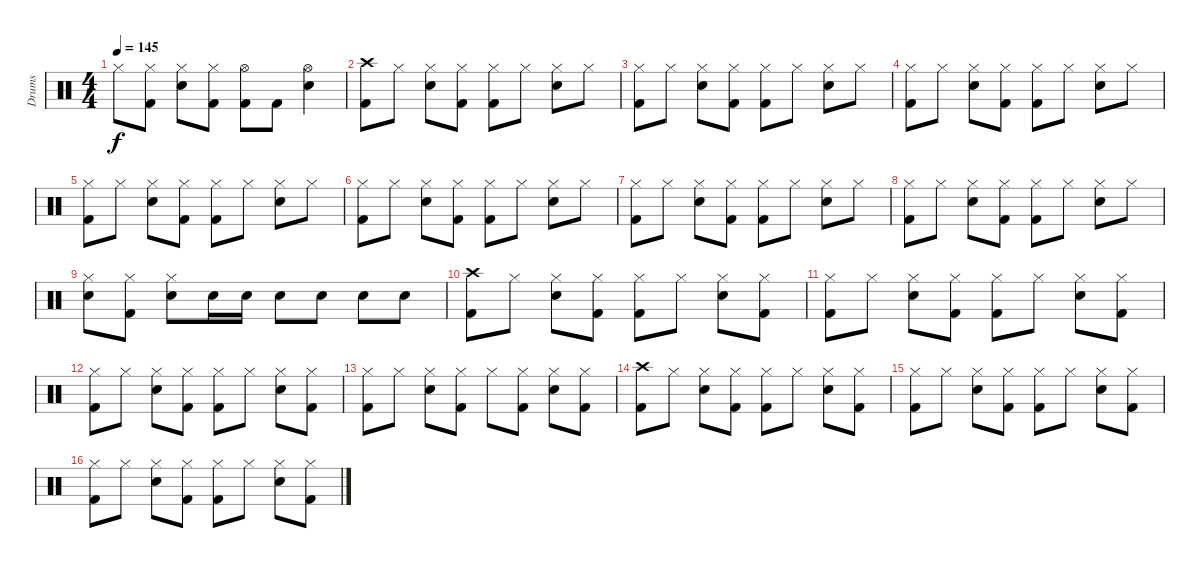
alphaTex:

\track ("Drums" "Drums") {instrument percussion}
\staff {score}
\articulation defaults
\ts (4 4)
\tempo 145
\clef neutral
\ks c "Hi-Hat (closed)".8{dy f}
("Hi-Hat (closed)" "Kick (hit) 2").8 ("Hi-Hat (closed)" "Electric Snare (hit)").8 ("Hi-Hat (closed)" "Kick (hit) 2").8 ("Hi-Hat (open)" "Kick (hit) 2").8 "Kick (hit) 2".8 ("Hi-Hat (open)" "Electric Snare (hit)").4 |
("Crash high (hit)" "Kick (hit) 2").8 "Hi-Hat (closed)".8 ("Hi-Hat (closed)" "Electric Snare (hit)").8 ("Hi-Hat (closed)" "Kick (hit) 2").8 ("Hi-Hat (closed)" "Kick (hit) 2").8 "Hi-Hat (closed)".8 ("Hi-Hat (closed)" "Electric Snare (hit)").8 "Hi-Hat (closed)".8 |
("Hi-Hat (closed)" "Kick (hit) 2").8 "Hi-Hat (closed)".8 ("Hi-Hat (closed)" "Electric Snare (hit)").8 ("Hi-Hat (closed)" "Kick (hit) 2").8 ("Hi-Hat (closed)" "Kick (hit) 2").8 "Hi-Hat (closed)".8 ("Hi-Hat (closed)" "Electric Snare (hit)").8 "Hi-Hat (closed)".8 |
("Hi-Hat (closed)" "Kick (hit) 2").8 "Hi-Hat (closed)".8 ("Hi-Hat (closed)" "Electric Snare (hit)").8 ("Hi-Hat (closed)" "Kick (hit) 2").8 ("Hi-Hat (closed)" "Kick (hit) 2").8 "Hi-Hat (closed)".8 ("Hi-Hat (closed)" "Electric Snare (hit)").8 "Hi-Hat (closed)".8 |
("Hi-Hat (closed)" "Kick (hit) 2").8 "Hi-Hat (closed)".8 ("Hi-Hat (closed)" "Electric Snare (hit)").8 ("Hi-Hat (closed)" "Kick (hit) 2").8 ("Hi-Hat (closed)" "Kick (hit) 2").8 "Hi-Hat (closed)".8 ("Hi-Hat (closed)" "Electric Snare (hit)").8 "Hi-Hat (closed)".8 |
("Hi-Hat (closed)" "Kick (hit) 2").8 "Hi-Hat (closed)".8 ("Hi-Hat (closed)" "Electric Snare (hit)").8 ("Hi-Hat (closed)" "Kick (hit) 2").8 ("Hi-Hat (closed)" "Kick (hit) 2").8 "Hi-Hat (closed)".8 ("Hi-Hat (closed)" "Electric Snare (hit)").8 "Hi-Hat (closed)".8 |
("Hi-Hat (closed)" "Kick (hit) 2").8 "Hi-Hat (closed)".8 ("Hi-Hat (closed)" "Electric Snare (hit)").8 ("Hi-Hat (closed)" "Kick (hit) 2").8 ("Hi-Hat (closed)" "Kick (hit) 2").8 "Hi-Hat (closed)".8 ("Hi-Hat (closed)" "Electric Snare (hit)").8 "Hi-Hat (closed)".8 |
("Hi-Hat (closed)" "Kick (hit) 2").8 "Hi-Hat (closed)".8 ("Hi-Hat (closed)" "Electric Snare (hit)").8 ("Hi-Hat (closed)" "Kick (hit) 2").8 ("Hi-Hat (closed)" "Kick (hit) 2").8 "Hi-Hat (closed)".8 ("Hi-Hat (closed)" "Electric Snare (hit)").8 "Hi-Hat (closed)".8 |
("Hi-Hat (closed)" "Electric Snare (hit)").8 ("Hi-Hat (closed)" "Kick (hit) 2").8 ("Hi-Hat (closed)" "Electric Snare (hit)").8 "Electric Snare (hit)".16 "Electric Snare (hit)".16 "Electric Snare (hit)".8 "Electric Snare (hit)".8 "Electric Snare (hit)".8 "Electric Snare (hit)".8 |
("Crash high (hit)" "Kick (hit) 2").8 "Hi-Hat (closed)".8 ("Hi-Hat (closed)" "Electric Snare (hit)").8 ("Hi-Hat (closed)" "Kick (hit) 2").8 ("Hi-Hat (closed)" "Kick (hit) 2").8 "Hi-Hat (closed)".8 ("Hi-Hat (closed)" "Electric Snare (hit)").8 ("Hi-Hat (closed)" "Kick (hit) 2").8 |
("Hi-Hat (closed)" "Kick (hit) 2").8 "Hi-Hat (closed)".8 ("Hi-Hat (closed)" "Electric Snare (hit)").8 ("Hi-Hat (closed)" "Kick (hit) 2").8 ("Hi-Hat (closed)" "Kick (hit) 2").8 "Hi-Hat (closed)".8 ("Hi-Hat (closed)" "Electric Snare (hit)").8 ("Hi-Hat (closed)" "Kick (hit) 2").8 |
("Hi-Hat (closed)" "Kick (hit) 2").8 "Hi-Hat (closed)".8 ("Hi-Hat (closed)" "Electric Snare (hit)").8 ("Hi-Hat (closed)" "Kick (hit) 2").8 ("Hi-Hat (closed)" "Kick (hit) 2").8 "Hi-Hat (closed)".8 ("Hi-Hat (closed)" "Electric Snare (hit)").8 ("Hi-Hat (closed)" "Kick (hit) 2").8 |
("Hi-Hat (closed)" "Kick (hit) 2").8 "Hi-Hat (closed)".8 ("Hi-Hat (closed)" "Electric Snare (hit)").8 ("Hi-Hat (closed)" "Kick (hit) 2").8 "Hi-Hat (closed)".8 ("Hi-Hat (closed)" "Kick (hit) 2").8 ("Hi-Hat (closed)" "Electric Snare (hit)").8 ("Hi-Hat (closed)" "Kick (hit) 2").8 |
("Crash high (hit)" "Kick (hit) 2").8 "Hi-Hat (closed)".8 ("Hi-Hat (closed)" "Electric Snare (hit)").8 ("Hi-Hat (closed)" "Kick (hit) 2").8 ("Hi-Hat (closed)" "Kick (hit) 2").8 "Hi-Hat (closed)".8 ("Hi-Hat (closed)" "Electric Snare (hit)").8 ("Hi-Hat (closed)" "Kick (hit) 2").8 |
("Hi-Hat (closed)" "Kick (hit) 2").8 "Hi-Hat (closed)".8 ("Hi-Hat (closed)" "Electric Snare (hit)").8 ("Hi-Hat (closed)" "Kick (hit) 2").8 ("Hi-Hat (closed)" "Kick (hit) 2").8 "Hi-Hat (closed)".8 ("Hi-Hat (closed)" "Electric Snare (hit)").8 ("Hi-Hat (closed)" "Kick (hit) 2").8 |
("Hi-Hat (closed)" "Kick (hit) 2").8 "Hi-Hat (closed)".8 ("Hi-Hat (closed)" "Electric Snare (hit)").8 ("Hi-Hat (closed)" "Kick (hit) 2").8 ("Hi-Hat (closed)" "Kick (hit) 2").8 "Hi-Hat (closed)".8 ("Hi-Hat (closed)" "Electric Snare (hit)").8 ("Hi-Hat (closed)" "Kick (hit) 2").8
